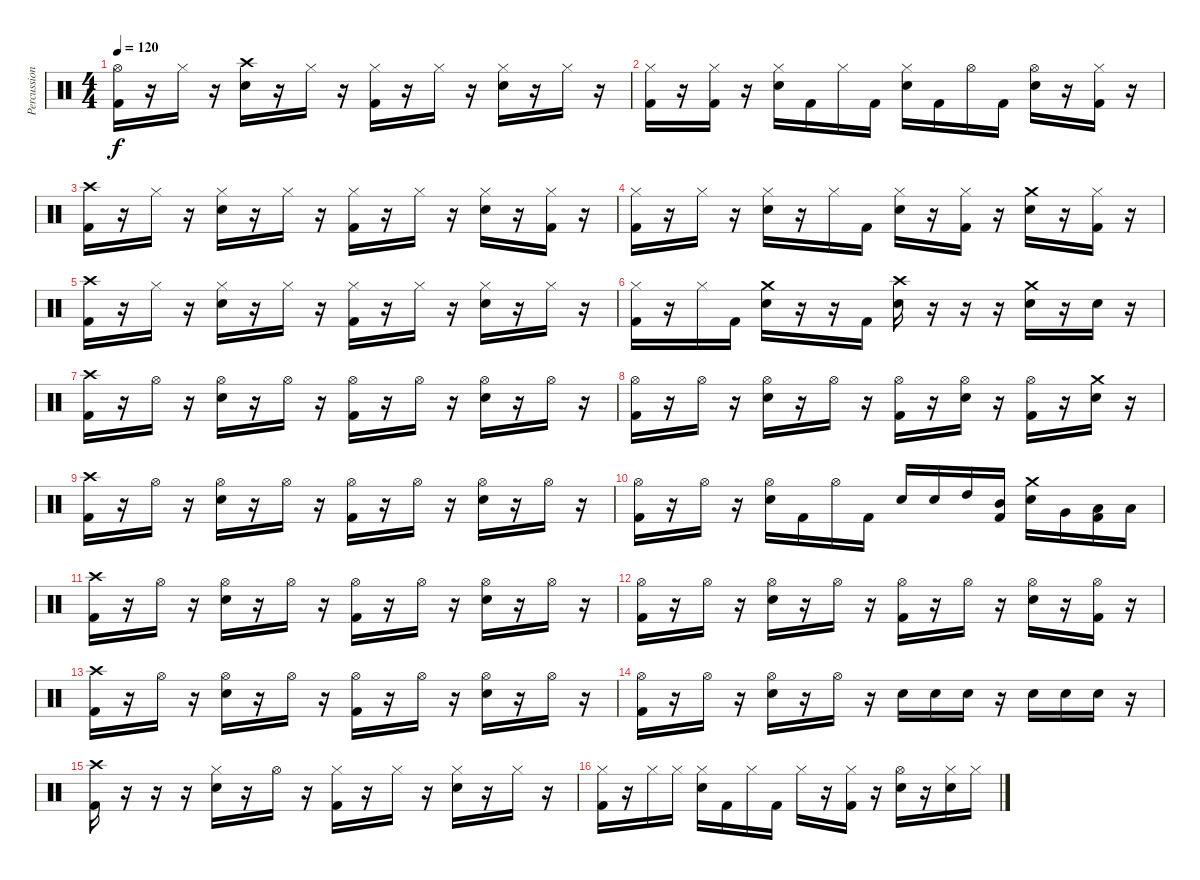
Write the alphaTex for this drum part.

\track ("Percussion" "Percussion") {instrument percussion}
\staff {score}
\articulation defaults
\ts (4 4)
\tempo 120
\clef neutral
\ks c
("Hi-Hat (open)" "Kick (hit) 2").16{dy f} r.16 "Hi-Hat (closed)".16 r.16 ("Crash high (hit)" "Snare (hit) 2").16 r.16 "Hi-Hat (closed)".16 r.16 ("Hi-Hat (closed)" "Kick (hit) 2").16 r.16 "Hi-Hat (closed)".16 r.16 ("Hi-Hat (closed)" "Snare (hit) 2").16 r.16 "Hi-Hat (closed)".16 r.16 |
("Hi-Hat (closed)" "Kick (hit) 2").16 r.16 ("Hi-Hat (closed)" "Kick (hit) 2").16 r.16 ("Hi-Hat (closed)" "Snare (hit) 2").16 "Kick (hit) 2".16 "Hi-Hat (closed)".16 "Kick (hit) 2".16 ("Hi-Hat (closed)" "Snare (hit) 2").16 "Kick (hit) 2".16 "Hi-Hat (open)".16 "Kick (hit) 2".16 ("Hi-Hat (open)" "Snare (hit) 2").16 r.16 ("Hi-Hat (closed)" "Kick (hit) 2").16 r.16 |
("Crash high (hit)" "Kick (hit) 2").16 r.16 "Hi-Hat (closed)".16 r.16 ("Hi-Hat (closed)" "Snare (hit) 2").16 r.16 "Hi-Hat (closed)".16 r.16 ("Hi-Hat (closed)" "Kick (hit) 2").16 r.16 "Hi-Hat (closed)".16 r.16 ("Hi-Hat (closed)" "Snare (hit) 2").16 r.16 ("Hi-Hat (closed)" "Kick (hit) 2").16 r.16 |
("Hi-Hat (closed)" "Kick (hit) 2").16 r.16 "Hi-Hat (closed)".16 r.16 ("Hi-Hat (closed)" "Snare (hit) 2").16 r.16 "Hi-Hat (closed)".16 "Kick (hit) 2".16 ("Hi-Hat (closed)" "Snare (hit) 2").16 r.16 ("Hi-Hat (closed)" "Kick (hit) 2").16 r.16 ("Crash medium (hit)" "Snare (hit) 2").16 r.16 ("Hi-Hat (closed)" "Kick (hit) 2").16 r.16 |
("Crash high (hit)" "Kick (hit) 2").16 r.16 "Hi-Hat (closed)".16 r.16 ("Hi-Hat (closed)" "Snare (hit) 2").16 r.16 "Hi-Hat (closed)".16 r.16 ("Hi-Hat (closed)" "Kick (hit) 2").16 r.16 "Hi-Hat (closed)".16 r.16 ("Hi-Hat (closed)" "Snare (hit) 2").16 r.16 "Hi-Hat (closed)".16 r.16 |
("Hi-Hat (closed)" "Kick (hit) 2").16 r.16 "Hi-Hat (closed)".16 "Kick (hit) 2".16 ("Crash medium (hit)" "Snare (hit) 2").16 r.16 r.16 "Kick (hit) 2".16 ("Crash high (hit)" "Snare (hit) 2").16 r.16 r.16 r.16 ("Crash medium (hit)" "Snare (hit) 2").16 r.16 "Snare (hit) 2".16 r.16 |
("Crash high (hit)" "Kick (hit) 2").16 r.16 "Hi-Hat (open)".16 r.16 ("Hi-Hat (open)" "Snare (hit) 2").16 r.16 "Hi-Hat (open)".16 r.16 ("Hi-Hat (open)" "Kick (hit) 2").16 r.16 "Hi-Hat (open)".16 r.16 ("Hi-Hat (open)" "Snare (hit) 2").16 r.16 "Hi-Hat (open)".16 r.16 |
("Hi-Hat (open)" "Kick (hit) 2").16 r.16 "Hi-Hat (open)".16 r.16 ("Hi-Hat (open)" "Snare (hit) 2").16 r.16 "Hi-Hat (open)".16 r.16 ("Hi-Hat (open)" "Kick (hit) 2").16 r.16 ("Hi-Hat (open)" "Snare (hit) 2").16 r.16 ("Hi-Hat (open)" "Kick (hit) 2").16 r.16 ("Crash medium (hit)" "Snare (hit) 2").16 r.16 |
("Crash high (hit)" "Kick (hit) 2").16 r.16 "Hi-Hat (open)".16 r.16 ("Hi-Hat (open)" "Snare (hit) 2").16 r.16 "Hi-Hat (open)".16 r.16 ("Hi-Hat (open)" "Kick (hit) 2").16 r.16 "Hi-Hat (open)".16 r.16 ("Hi-Hat (open)" "Snare (hit) 2").16 r.16 "Hi-Hat (open)".16 r.16 |
("Hi-Hat (open)" "Kick (hit) 2").16 r.16 "Hi-Hat (open)".16 r.16 ("Hi-Hat (open)" "Snare (hit) 2").16 "Kick (hit) 2".16 "Hi-Hat (open)".16 "Kick (hit) 2".16 "Snare (hit) 2".16 "Snare (hit) 2".16 "High Tom (hit)".16 ("Mid Tom (hit)" "Kick (hit) 2").16 ("Crash medium (hit)" "Snare (hit) 2").16 "Very Low Tom (hit)".16 ("Low Floor Tom (hit)" "Kick (hit) 2").16 "Low Floor Tom (hit)".16 |
("Crash high (hit)" "Kick (hit) 2").16 r.16 "Hi-Hat (open)".16 r.16 ("Hi-Hat (open)" "Snare (hit) 2").16 r.16 "Hi-Hat (open)".16 r.16 ("Hi-Hat (open)" "Kick (hit) 2").16 r.16 "Hi-Hat (open)".16 r.16 ("Hi-Hat (open)" "Snare (hit) 2").16 r.16 "Hi-Hat (open)".16 r.16 |
("Hi-Hat (open)" "Kick (hit) 2").16 r.16 "Hi-Hat (open)".16 r.16 ("Hi-Hat (open)" "Snare (hit) 2").16 r.16 "Hi-Hat (open)".16 r.16 ("Hi-Hat (open)" "Kick (hit) 2").16 r.16 "Hi-Hat (open)".16 r.16 ("Hi-Hat (open)" "Snare (hit) 2").16 r.16 ("Hi-Hat (open)" "Kick (hit) 2").16 r.16 |
("Crash high (hit)" "Kick (hit) 2").16 r.16 "Hi-Hat (open)".16 r.16 ("Hi-Hat (open)" "Snare (hit) 2").16 r.16 "Hi-Hat (open)".16 r.16 ("Hi-Hat (open)" "Kick (hit) 2").16 r.16 "Hi-Hat (open)".16 r.16 ("Hi-Hat (open)" "Snare (hit) 2").16 r.16 "Hi-Hat (open)".16 r.16 |
("Hi-Hat (open)" "Kick (hit) 2").16 r.16 "Hi-Hat (open)".16 r.16 ("Hi-Hat (open)" "Snare (hit) 2").16 r.16 "Hi-Hat (open)".16 r.16 "Snare (hit) 2".16 "Snare (hit) 2".16 "Snare (hit) 2".16 r.16 "Snare (hit) 2".16 "Snare (hit) 2".16 "Snare (hit) 2".16 r.16 |
("Crash high (hit)" "Kick (hit) 2").16 r.16 r.16 r.16 ("Hi-Hat (closed)" "Snare (hit) 2").16 r.16 "Hi-Hat (open)".16 r.16 ("Hi-Hat (closed)" "Kick (hit) 2").16 r.16 "Hi-Hat (closed)".16 r.16 ("Hi-Hat (closed)" "Snare (hit) 2").16 r.16 "Hi-Hat (closed)".16 r.16 |
("Hi-Hat (closed)" "Kick (hit) 2").16 r.16 "Hi-Hat (closed)".16 "Hi-Hat (closed)".16 ("Hi-Hat (closed)" "Snare (hit) 2").16 "Kick (hit) 2".16 "Hi-Hat (closed)".16 "Kick (hit) 2".16 "Hi-Hat (closed)".16 r.16 ("Hi-Hat (closed)" "Kick (hit) 2").16 r.16 ("Hi-Hat (open)" "Snare (hit) 2").16 r.16 ("Hi-Hat (closed)" "Snare (hit) 2").16 "Hi-Hat (closed)".16
